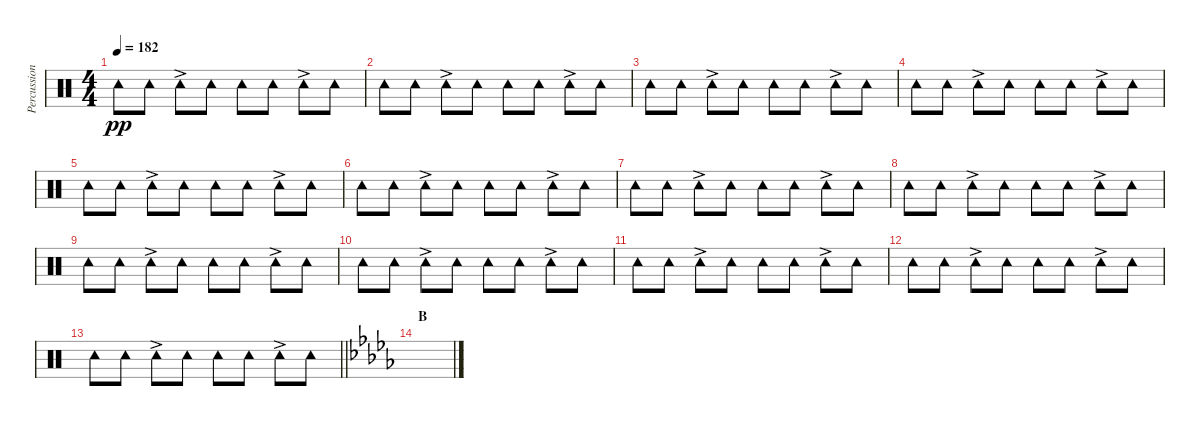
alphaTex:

\track ("Percussion (Tainaka Ritsu)" "Percussion") {instrument percussion}
\staff {score}
\articulation defaults
\ts (4 4)
\tempo 182
\clef neutral
\ks c "Tambourine (hit)".8{dy pp} "Tambourine (hit)".8 "Tambourine (hit)"{ac}.8 "Tambourine (hit)".8 "Tambourine (hit)".8 "Tambourine (hit)".8 "Tambourine (hit)"{ac}.8 "Tambourine (hit)".8
|
"Tambourine (hit)".8 "Tambourine (hit)".8 "Tambourine (hit)"{ac}.8 "Tambourine (hit)".8 "Tambourine (hit)".8 "Tambourine (hit)".8 "Tambourine (hit)"{ac}.8 "Tambourine (hit)".8 |
"Tambourine (hit)".8 "Tambourine (hit)".8 "Tambourine (hit)"{ac}.8 "Tambourine (hit)".8 "Tambourine (hit)".8 "Tambourine (hit)".8 "Tambourine (hit)"{ac}.8 "Tambourine (hit)".8 |
"Tambourine (hit)".8 "Tambourine (hit)".8 "Tambourine (hit)"{ac}.8 "Tambourine (hit)".8 "Tambourine (hit)".8 "Tambourine (hit)".8 "Tambourine (hit)"{ac}.8 "Tambourine (hit)".8 |
"Tambourine (hit)".8 "Tambourine (hit)".8 "Tambourine (hit)"{ac}.8 "Tambourine (hit)".8 "Tambourine (hit)".8 "Tambourine (hit)".8 "Tambourine (hit)"{ac}.8 "Tambourine (hit)".8 |
"Tambourine (hit)".8 "Tambourine (hit)".8 "Tambourine (hit)"{ac}.8 "Tambourine (hit)".8 "Tambourine (hit)".8 "Tambourine (hit)".8 "Tambourine (hit)"{ac}.8 "Tambourine (hit)".8 |
"Tambourine (hit)".8 "Tambourine (hit)".8 "Tambourine (hit)"{ac}.8 "Tambourine (hit)".8 "Tambourine (hit)".8 "Tambourine (hit)".8 "Tambourine (hit)"{ac}.8 "Tambourine (hit)".8 |
"Tambourine (hit)".8 "Tambourine (hit)".8 "Tambourine (hit)"{ac}.8 "Tambourine (hit)".8 "Tambourine (hit)".8 "Tambourine (hit)".8 "Tambourine (hit)"{ac}.8 "Tambourine (hit)".8 |
"Tambourine (hit)".8 "Tambourine (hit)".8 "Tambourine (hit)"{ac}.8 "Tambourine (hit)".8 "Tambourine (hit)".8 "Tambourine (hit)".8 "Tambourine (hit)"{ac}.8 "Tambourine (hit)".8 |
"Tambourine (hit)".8 "Tambourine (hit)".8 "Tambourine (hit)"{ac}.8 "Tambourine (hit)".8 "Tambourine (hit)".8 "Tambourine (hit)".8 "Tambourine (hit)"{ac}.8 "Tambourine (hit)".8 |
"Tambourine (hit)".8 "Tambourine (hit)".8 "Tambourine (hit)"{ac}.8 "Tambourine (hit)".8 "Tambourine (hit)".8 "Tambourine (hit)".8 "Tambourine (hit)"{ac}.8 "Tambourine (hit)".8 |
"Tambourine (hit)".8 "Tambourine (hit)".8 "Tambourine (hit)"{ac}.8 "Tambourine (hit)".8 "Tambourine (hit)".8 "Tambourine (hit)".8 "Tambourine (hit)"{ac}.8 "Tambourine (hit)".8 |
\barLineRight lightlight "Tambourine (hit)".8 "Tambourine (hit)".8 "Tambourine (hit)"{ac}.8 "Tambourine (hit)".8 "Tambourine (hit)".8 "Tambourine (hit)".8 "Tambourine (hit)"{ac}.8 "Tambourine (hit)".8
|
\section ("" "B")
\ks db
